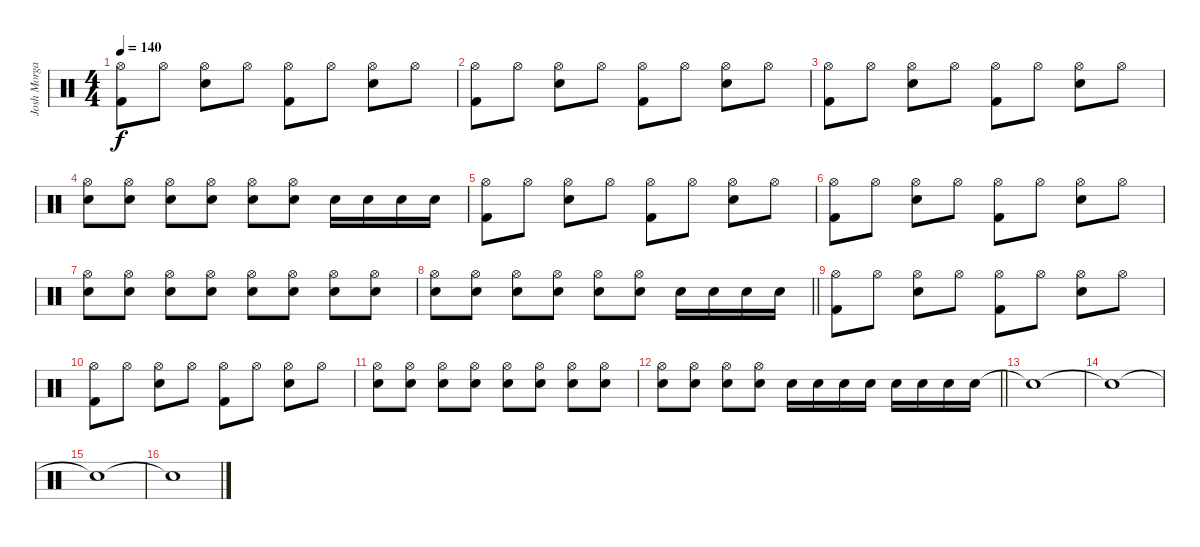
\track ("Josh Morgan" "Josh Morga") {instrument percussion}
\staff {score}
\articulation defaults
\ts (4 4)
\tempo 140
\clef neutral
\ks c
("Hi-Hat (open)" "Kick (hit) 2").8{dy f} "Hi-Hat (open)".8 ("Hi-Hat (open)" "Electric Snare (hit)").8 "Hi-Hat (open)".8 ("Hi-Hat (open)" "Kick (hit) 2").8 "Hi-Hat (open)".8 ("Hi-Hat (open)" "Electric Snare (hit)").8 "Hi-Hat (open)".8 |
("Hi-Hat (open)" "Kick (hit) 2").8 "Hi-Hat (open)".8 ("Hi-Hat (open)" "Electric Snare (hit)").8 "Hi-Hat (open)".8 ("Hi-Hat (open)" "Kick (hit) 2").8 "Hi-Hat (open)".8 ("Hi-Hat (open)" "Electric Snare (hit)").8 "Hi-Hat (open)".8 |
("Hi-Hat (open)" "Kick (hit) 2").8 "Hi-Hat (open)".8 ("Hi-Hat (open)" "Electric Snare (hit)").8 "Hi-Hat (open)".8 ("Hi-Hat (open)" "Kick (hit) 2").8 "Hi-Hat (open)".8 ("Hi-Hat (open)" "Electric Snare (hit)").8 "Hi-Hat (open)".8 |
("Hi-Hat (open)" "Electric Snare (hit)").8 ("Hi-Hat (open)" "Electric Snare (hit)").8 ("Hi-Hat (open)" "Electric Snare (hit)").8 ("Hi-Hat (open)" "Electric Snare (hit)").8 ("Hi-Hat (open)" "Electric Snare (hit)").8 ("Hi-Hat (open)" "Electric Snare (hit)").8 "Electric Snare (hit)".16 "Electric Snare (hit)".16 "Electric Snare (hit)".16 "Electric Snare (hit)".16 |
("Hi-Hat (open)" "Kick (hit) 2").8 "Hi-Hat (open)".8 ("Hi-Hat (open)" "Electric Snare (hit)").8 "Hi-Hat (open)".8 ("Hi-Hat (open)" "Kick (hit) 2").8 "Hi-Hat (open)".8 ("Hi-Hat (open)" "Electric Snare (hit)").8 "Hi-Hat (open)".8 |
("Hi-Hat (open)" "Kick (hit) 2").8 "Hi-Hat (open)".8 ("Hi-Hat (open)" "Electric Snare (hit)").8 "Hi-Hat (open)".8 ("Hi-Hat (open)" "Kick (hit) 2").8 "Hi-Hat (open)".8 ("Hi-Hat (open)" "Electric Snare (hit)").8 "Hi-Hat (open)".8 |
("Hi-Hat (open)" "Electric Snare (hit)").8 ("Hi-Hat (open)" "Electric Snare (hit)").8 ("Hi-Hat (open)" "Electric Snare (hit)").8 ("Hi-Hat (open)" "Electric Snare (hit)").8 ("Hi-Hat (open)" "Electric Snare (hit)").8 ("Hi-Hat (open)" "Electric Snare (hit)").8 ("Hi-Hat (open)" "Electric Snare (hit)").8 ("Hi-Hat (open)" "Electric Snare (hit)").8 |
\barLineRight lightlight
("Hi-Hat (open)" "Electric Snare (hit)").8 ("Hi-Hat (open)" "Electric Snare (hit)").8 ("Hi-Hat (open)" "Electric Snare (hit)").8 ("Hi-Hat (open)" "Electric Snare (hit)").8 ("Hi-Hat (open)" "Electric Snare (hit)").8 ("Hi-Hat (open)" "Electric Snare (hit)").8 "Electric Snare (hit)".16 "Electric Snare (hit)".16 "Electric Snare (hit)".16 "Electric Snare (hit)".16 |
("Hi-Hat (open)" "Kick (hit) 2").8 "Hi-Hat (open)".8 ("Hi-Hat (open)" "Electric Snare (hit)").8 "Hi-Hat (open)".8 ("Hi-Hat (open)" "Kick (hit) 2").8 "Hi-Hat (open)".8 ("Hi-Hat (open)" "Electric Snare (hit)").8 "Hi-Hat (open)".8 |
("Hi-Hat (open)" "Kick (hit) 2").8 "Hi-Hat (open)".8 ("Hi-Hat (open)" "Electric Snare (hit)").8 "Hi-Hat (open)".8 ("Hi-Hat (open)" "Kick (hit) 2").8 "Hi-Hat (open)".8 ("Hi-Hat (open)" "Electric Snare (hit)").8 "Hi-Hat (open)".8 |
("Hi-Hat (open)" "Electric Snare (hit)").8 ("Hi-Hat (open)" "Electric Snare (hit)").8 ("Hi-Hat (open)" "Electric Snare (hit)").8 ("Hi-Hat (open)" "Electric Snare (hit)").8 ("Hi-Hat (open)" "Electric Snare (hit)").8 ("Hi-Hat (open)" "Electric Snare (hit)").8 ("Hi-Hat (open)" "Electric Snare (hit)").8 ("Hi-Hat (open)" "Electric Snare (hit)").8 |
\barLineRight lightlight
("Hi-Hat (open)" "Electric Snare (hit)").8 ("Hi-Hat (open)" "Electric Snare (hit)").8 ("Hi-Hat (open)" "Electric Snare (hit)").8 ("Hi-Hat (open)" "Electric Snare (hit)").8 "Electric Snare (hit)".16 "Electric Snare (hit)".16 "Electric Snare (hit)".16 "Electric Snare (hit)".16 "Electric Snare (hit)".16 "Electric Snare (hit)".16 "Electric Snare (hit)".16 "Electric Snare (hit)".16 |
"Snare (hit)"{t}.1 |
"Snare (hit)"{t}.1 |
"Snare (hit)"{t}.1 |
"Snare (hit)"{t}.1
